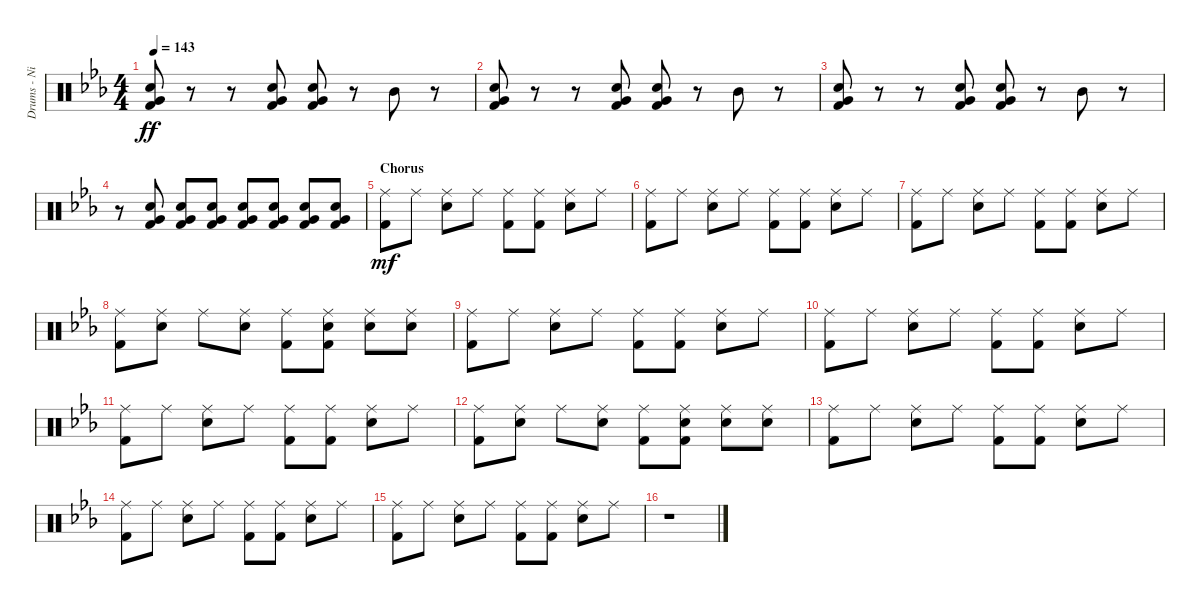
\track ("Drums - Nigel Olsen" "Drums - Ni") {instrument percussion}
\staff {score}
\articulation defaults
\ts (4 4)
\tempo 143
\clef neutral
\ks cminor
("Very Low Tom (hit)" "Snare (hit) 2" "Kick (hit) 2").8{dy ff} r.8 r.8 ("Very Low Tom (hit)" "Snare (hit) 2" "Kick (hit) 2").8 ("Very Low Tom (hit)" "Snare (hit) 2" "Kick (hit) 2").8 r.8 "Mid Tom (hit)".8 r.8 |
("Very Low Tom (hit)" "Snare (hit) 2" "Kick (hit) 2").8 r.8 r.8 ("Very Low Tom (hit)" "Snare (hit) 2" "Kick (hit) 2").8 ("Very Low Tom (hit)" "Snare (hit) 2" "Kick (hit) 2").8 r.8 "Mid Tom (hit)".8 r.8 |
("Very Low Tom (hit)" "Snare (hit) 2" "Kick (hit) 2").8 r.8 r.8 ("Very Low Tom (hit)" "Snare (hit) 2" "Kick (hit) 2").8 ("Very Low Tom (hit)" "Snare (hit) 2" "Kick (hit) 2").8 r.8 "Mid Tom (hit)".8 r.8 |
r.8 ("Very Low Tom (hit)" "Snare (hit) 2" "Kick (hit) 2").8 ("Very Low Tom (hit)" "Snare (hit) 2" "Kick (hit) 2").8 ("Very Low Tom (hit)" "Snare (hit) 2" "Kick (hit) 2").8 ("Very Low Tom (hit)" "Snare (hit) 2" "Kick (hit) 2").8 ("Very Low Tom (hit)" "Snare (hit) 2" "Kick (hit) 2").8 ("Very Low Tom (hit)" "Snare (hit) 2" "Kick (hit) 2").8 ("Very Low Tom (hit)" "Snare (hit) 2" "Kick (hit) 2").8 |
\section ("" "Chorus")
("Ride (middle)" "Kick (hit) 2").8{dy mf} "Ride (middle)".8 ("Ride (middle)" "Snare (hit) 2").8 "Ride (middle)".8 ("Ride (middle)" "Kick (hit) 2").8 ("Ride (middle)" "Kick (hit) 2").8 ("Ride (middle)" "Snare (hit) 2").8 "Ride (middle)".8 |
("Ride (middle)" "Kick (hit) 2").8 "Ride (middle)".8 ("Ride (middle)" "Snare (hit) 2").8 "Ride (middle)".8 ("Ride (middle)" "Kick (hit) 2").8 ("Ride (middle)" "Kick (hit) 2").8 ("Ride (middle)" "Snare (hit) 2").8 "Ride (middle)".8 |
("Ride (middle)" "Kick (hit) 2").8 "Ride (middle)".8 ("Ride (middle)" "Snare (hit) 2").8 "Ride (middle)".8 ("Ride (middle)" "Kick (hit) 2").8 ("Ride (middle)" "Kick (hit) 2").8 ("Ride (middle)" "Snare (hit) 2").8 "Ride (middle)".8 |
("Ride (middle)" "Kick (hit) 2").8 ("Ride (middle)" "Snare (hit) 2").8 "Ride (middle)".8 ("Ride (middle)" "Snare (hit) 2").8 ("Ride (middle)" "Kick (hit) 2").8 ("Ride (middle)" "Snare (hit) 2" "Kick (hit) 2").8 ("Ride (middle)" "Snare (hit) 2").8 ("Ride (middle)" "Snare (hit) 2").8 |
("Ride (middle)" "Kick (hit) 2").8 "Ride (middle)".8 ("Ride (middle)" "Snare (hit) 2").8 "Ride (middle)".8 ("Ride (middle)" "Kick (hit) 2").8 ("Ride (middle)" "Kick (hit) 2").8 ("Ride (middle)" "Snare (hit) 2").8 "Ride (middle)".8 |
("Ride (middle)" "Kick (hit) 2").8 "Ride (middle)".8 ("Ride (middle)" "Snare (hit) 2").8 "Ride (middle)".8 ("Ride (middle)" "Kick (hit) 2").8 ("Ride (middle)" "Kick (hit) 2").8 ("Ride (middle)" "Snare (hit) 2").8 "Ride (middle)".8 |
("Ride (middle)" "Kick (hit) 2").8 "Ride (middle)".8 ("Ride (middle)" "Snare (hit) 2").8 "Ride (middle)".8 ("Ride (middle)" "Kick (hit) 2").8 ("Ride (middle)" "Kick (hit) 2").8 ("Ride (middle)" "Snare (hit) 2").8 "Ride (middle)".8 |
("Ride (middle)" "Kick (hit) 2").8 ("Ride (middle)" "Snare (hit) 2").8 "Ride (middle)".8 ("Ride (middle)" "Snare (hit) 2").8 ("Ride (middle)" "Kick (hit) 2").8 ("Ride (middle)" "Snare (hit) 2" "Kick (hit) 2").8 ("Ride (middle)" "Snare (hit) 2").8 ("Ride (middle)" "Snare (hit) 2").8 |
("Ride (middle)" "Kick (hit) 2").8 "Ride (middle)".8 ("Ride (middle)" "Snare (hit) 2").8 "Ride (middle)".8 ("Ride (middle)" "Kick (hit) 2").8 ("Ride (middle)" "Kick (hit) 2").8 ("Ride (middle)" "Snare (hit) 2").8 "Ride (middle)".8 |
("Ride (middle)" "Kick (hit) 2").8 "Ride (middle)".8 ("Ride (middle)" "Snare (hit) 2").8 "Ride (middle)".8 ("Ride (middle)" "Kick (hit) 2").8 ("Ride (middle)" "Kick (hit) 2").8 ("Ride (middle)" "Snare (hit) 2").8 "Ride (middle)".8 |
("Ride (middle)" "Kick (hit) 2").8 "Ride (middle)".8 ("Ride (middle)" "Snare (hit) 2").8 "Ride (middle)".8 ("Ride (middle)" "Kick (hit) 2").8 ("Ride (middle)" "Kick (hit) 2").8 ("Ride (middle)" "Snare (hit) 2").8 "Ride (middle)".8 |
r.1
